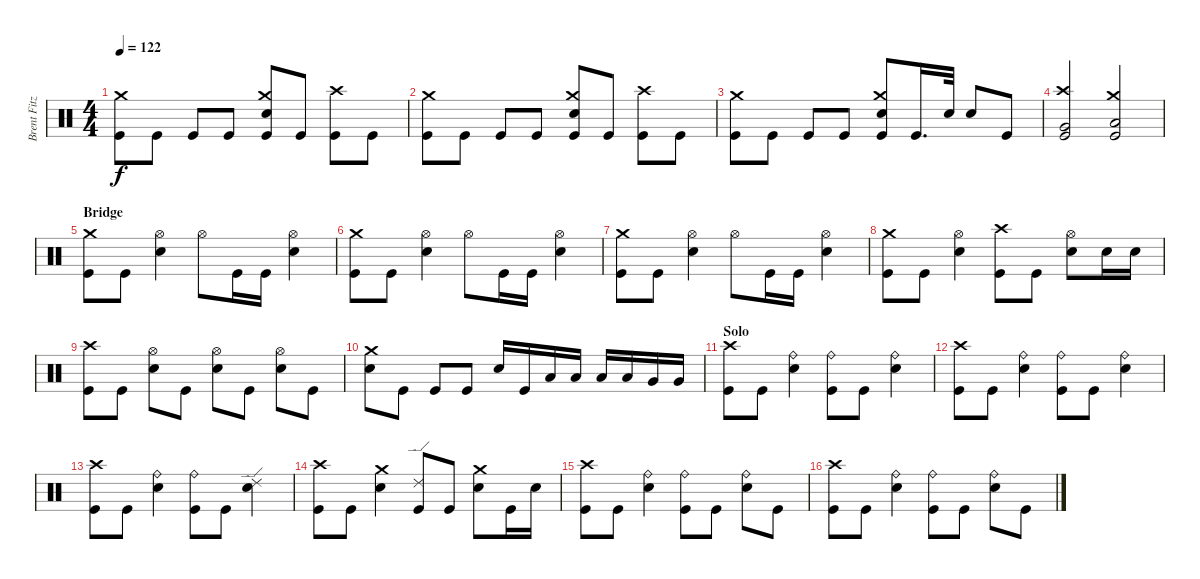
\track ("Brent Fitz" "Brent Fitz") {instrument percussion}
\staff {score}
\articulation defaults
\ts (4 4)
\tempo 122
\clef neutral
\ks c
("Kick (hit)" "Crash medium (hit)").8{dy f} "Kick (hit)".8 "Kick (hit)".8 "Kick (hit)".8 ("Snare (hit) 2" "Crash medium (hit)" "Kick (hit)").8 "Kick (hit)".8 ("Kick (hit)" "Crash high (hit)").8 "Kick (hit)".8 |
("Kick (hit)" "Crash medium (hit)").8 "Kick (hit)".8 "Kick (hit)".8 "Kick (hit)".8 ("Snare (hit) 2" "Crash medium (hit)" "Kick (hit)").8 "Kick (hit)".8 ("Kick (hit)" "Crash high (hit)").8 "Kick (hit)".8 |
("Kick (hit)" "Crash medium (hit)").8 "Kick (hit)".8 "Kick (hit)".8 "Kick (hit)".8 ("Snare (hit) 2" "Crash medium (hit)" "Kick (hit)").8 "Kick (hit)".16{d} "Snare (hit) 2".32 "Snare (hit) 2".8 "Kick (hit)".8 |
("Very Low Tom (hit)" "Crash high (hit)" "Kick (hit)").2 ("Low Floor Tom (hit)" "Kick (hit)" "Crash medium (hit)").2 |
\section ("" "Bridge")
("Kick (hit)" "Crash medium (hit)").8 "Kick (hit)".8 ("Snare (hit) 2" "Hi-Hat (open)").4 "Hi-Hat (open)".8 "Kick (hit)".16 "Kick (hit)".16 ("Snare (hit) 2" "Hi-Hat (open)").4 |
("Kick (hit)" "Crash medium (hit)").8 "Kick (hit)".8 ("Snare (hit) 2" "Hi-Hat (open)").4 "Hi-Hat (open)".8 "Kick (hit)".16 "Kick (hit)".16 ("Snare (hit) 2" "Hi-Hat (open)").4 |
("Kick (hit)" "Crash medium (hit)").8 "Kick (hit)".8 ("Snare (hit) 2" "Hi-Hat (open)").4 "Hi-Hat (open)".8 "Kick (hit)".16 "Kick (hit)".16 ("Snare (hit) 2" "Hi-Hat (open)").4 |
("Kick (hit)" "Crash medium (hit)").8 "Kick (hit)".8 ("Snare (hit) 2" "Hi-Hat (open)").4 ("Kick (hit)" "Crash high (hit)").8 "Kick (hit)".8 ("Snare (hit) 2" "Hi-Hat (open)").8 "Snare (hit) 2".16 "Snare (hit) 2".16 |
("Kick (hit)" "Crash high (hit)").8 "Kick (hit)".8 ("Snare (hit) 2" "Hi-Hat (open)").8 "Kick (hit)".8 ("Snare (hit) 2" "Hi-Hat (open)").8 "Kick (hit)".8 ("Snare (hit) 2" "Hi-Hat (open)").8 "Kick (hit)".8 |
("Snare (hit) 2" "Crash medium (hit)").8 "Kick (hit)".8 "Kick (hit)".8 "Kick (hit)".8 "Snare (hit) 2".16 "Kick (hit)".16 "Low Floor Tom (hit)".16 "Low Floor Tom (hit)".16 "Low Tom (hit)".16 "Low Tom (hit)".16 "Very Low Tom (hit)".16 "Very Low Tom (hit)".16 |
\section ("" "Solo")
("Kick (hit)" "Crash high (hit)").8 "Kick (hit)".8 ("Snare (hit) 2" "Ride (bell)").4 ("Kick (hit)" "Ride (bell)").8 "Kick (hit)".8 ("Snare (hit) 2" "Ride (bell)").4 |
("Kick (hit)" "Crash high (hit)").8 "Kick (hit)".8 ("Snare (hit) 2" "Ride (bell)").4 ("Kick (hit)" "Ride (bell)").8 "Kick (hit)".8 ("Snare (hit) 2" "Ride (bell)").4 |
("Kick (hit)" "Crash high (hit)").8 "Kick (hit)".8 ("Snare (hit) 2" "Ride (bell)").4 ("Kick (hit)" "Ride (bell)").8 "Kick (hit)".8 ("Snare (hit) 2" "Ride (edge) 2").4 |
("Kick (hit)" "Crash high (hit)").8 "Kick (hit)".8 ("Snare (hit) 2" "Crash medium (hit)").4 ("Kick (hit)" "Ride (edge) 2").8 "Kick (hit)".8 ("Snare (hit) 2" "Crash medium (hit)").8 "Kick (hit)".16 "Snare (hit) 2".16 |
("Kick (hit)" "Crash high (hit)").8 "Kick (hit)".8 ("Snare (hit) 2" "Ride (bell)").4 ("Kick (hit)" "Ride (bell)").8 "Kick (hit)".8 ("Snare (hit) 2" "Ride (bell)").8 "Kick (hit)".8 |
("Kick (hit)" "Crash high (hit)").8 "Kick (hit)".8 ("Snare (hit) 2" "Ride (bell)").4 ("Kick (hit)" "Ride (bell)").8 "Kick (hit)".8 ("Snare (hit) 2" "Ride (bell)").8 "Kick (hit)".8
